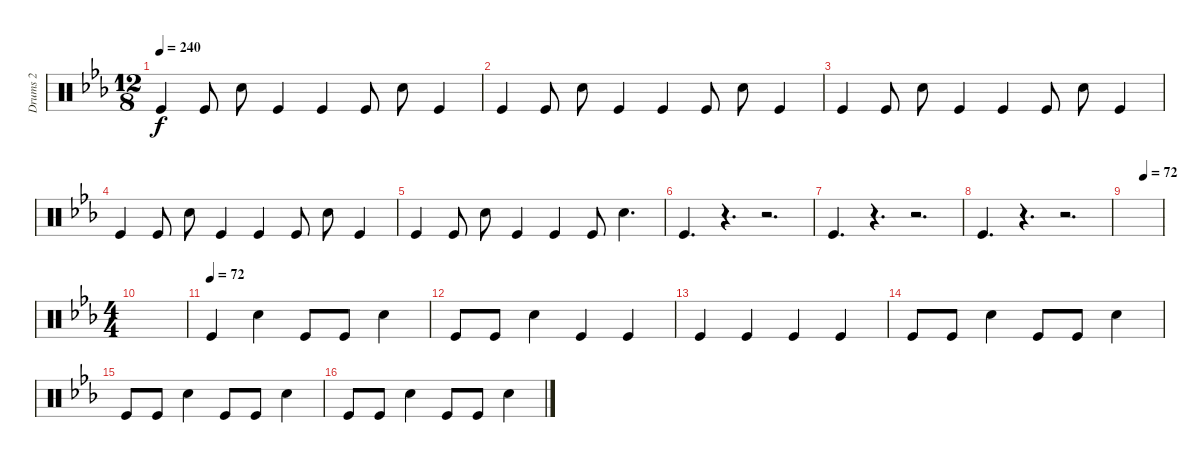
\track ("Drums 2" "Drums 2") {instrument percussion}
\staff {score}
\articulation defaults
\ts (12 8)
\tempo 240
\clef neutral
\ks eb "Kick (hit)".4{dy f} "Kick (hit)".8 "Snare (hit) 2".8 "Kick (hit)".4 "Kick (hit)".4 "Kick (hit)".8 "Snare (hit) 2".8 "Kick (hit)".4
|
"Kick (hit)".4 "Kick (hit)".8 "Snare (hit) 2".8 "Kick (hit)".4 "Kick (hit)".4 "Kick (hit)".8 "Snare (hit) 2".8 "Kick (hit)".4 |
"Kick (hit)".4 "Kick (hit)".8 "Snare (hit) 2".8 "Kick (hit)".4 "Kick (hit)".4 "Kick (hit)".8 "Snare (hit) 2".8 "Kick (hit)".4 |
"Kick (hit)".4 "Kick (hit)".8 "Snare (hit) 2".8 "Kick (hit)".4 "Kick (hit)".4 "Kick (hit)".8 "Snare (hit) 2".8 "Kick (hit)".4 |
"Kick (hit)".4 "Kick (hit)".8 "Snare (hit) 2".8 "Kick (hit)".4 "Kick (hit)".4 "Kick (hit)".8 "Snare (hit) 2".4{d} |
"Kick (hit)".4{d} r.4{d} r.2{d} |
"Kick (hit)".4{d} r.4{d} r.2{d} |
"Kick (hit)".4{d} r.4{d} r.2{d} |
\tempo (72 0.5)
|
\ts (4 4)
|
\tempo (72)
"Kick (hit)".4 "Snare (hit) 2".4 "Kick (hit)".8 "Kick (hit)".8 "Snare (hit) 2".4 |
"Kick (hit)".8 "Kick (hit)".8 "Snare (hit) 2".4 "Kick (hit)".4 "Kick (hit)".4 |
"Kick (hit)".4 "Kick (hit)".4 "Kick (hit)".4 "Kick (hit)".4 |
"Kick (hit)".8 "Kick (hit)".8 "Snare (hit) 2".4 "Kick (hit)".8 "Kick (hit)".8 "Snare (hit) 2".4 |
"Kick (hit)".8 "Kick (hit)".8 "Snare (hit) 2".4 "Kick (hit)".8 "Kick (hit)".8 "Snare (hit) 2".4 |
"Kick (hit)".8 "Kick (hit)".8 "Snare (hit) 2".4 "Kick (hit)".8 "Kick (hit)".8 "Snare (hit) 2".4
